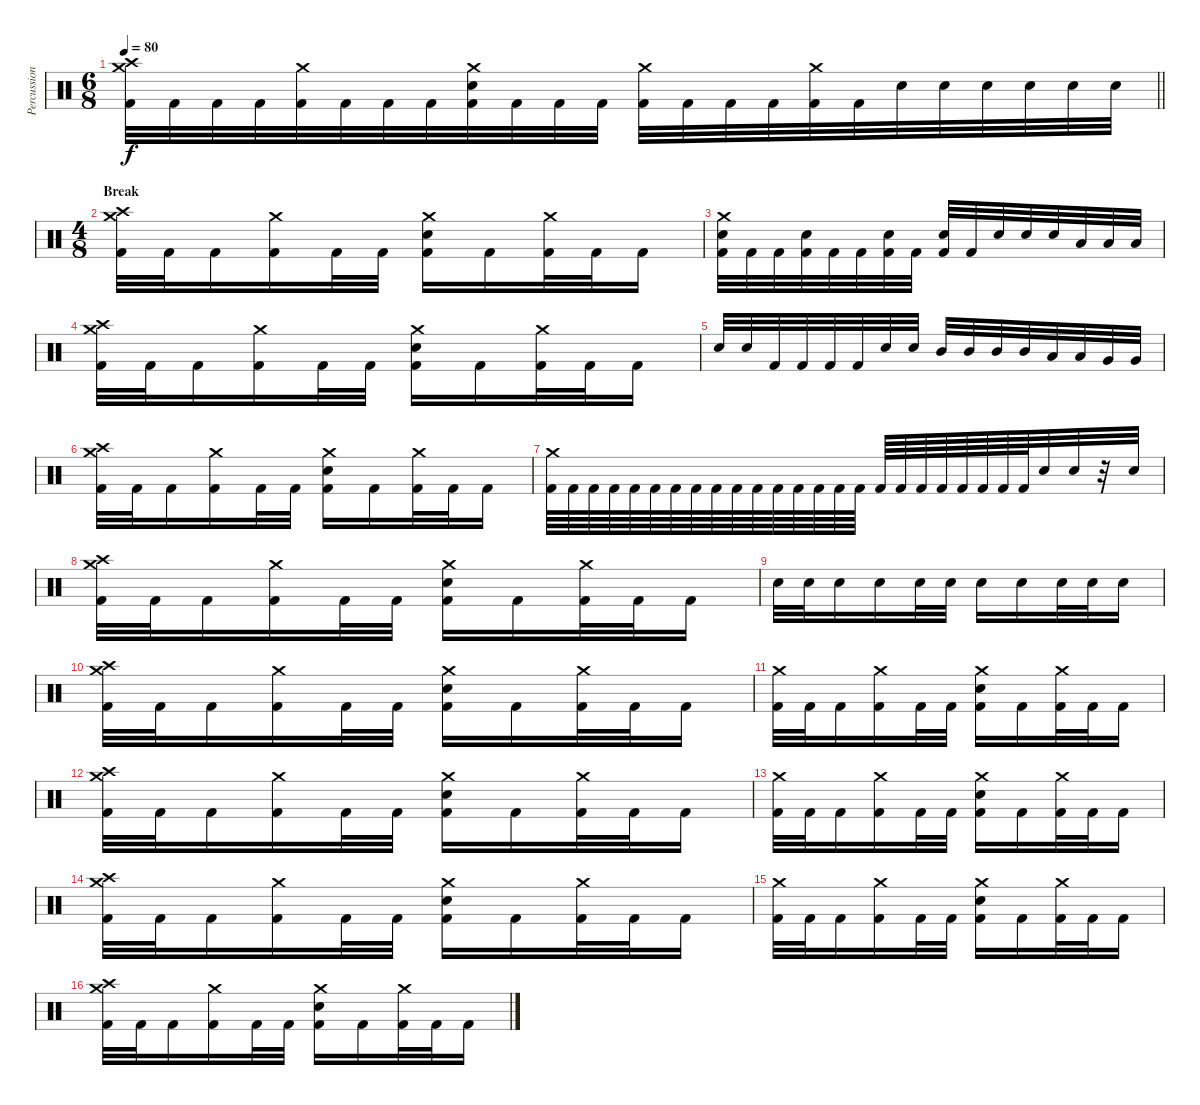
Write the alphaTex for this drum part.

\track ("Percussion" "Percussion") {instrument percussion}
\staff {score}
\articulation defaults
\ts (6 8)
\tempo 80
\clef neutral
\barLineRight lightlight
\ks c
("Crash high (hit)" "Crash medium (hit)" "Kick (hit) 2").32{dy f} "Kick (hit) 2".32 "Kick (hit) 2".32 "Kick (hit) 2".32 ("Crash medium (hit)" "Kick (hit) 2").32 "Kick (hit) 2".32 "Kick (hit) 2".32 "Kick (hit) 2".32 ("Crash medium (hit)" "Snare (hit) 2" "Kick (hit) 2").32 "Kick (hit) 2".32 "Kick (hit) 2".32 "Kick (hit) 2".32 ("Crash medium (hit)" "Kick (hit) 2").32 "Kick (hit) 2".32 "Kick (hit) 2".32 "Kick (hit) 2".32 ("Crash medium (hit)" "Kick (hit) 2").32 "Kick (hit) 2".32 "Snare (hit) 2".32 "Snare (hit) 2".32 "Snare (hit) 2".32 "Snare (hit) 2".32 "Snare (hit) 2".32 "Snare (hit) 2".32 |
\ts (4 8)
\section ("" "Break")
("Crash high (hit)" "Crash medium (hit)" "Kick (hit) 2").32 "Kick (hit) 2".32 "Kick (hit) 2".16 ("Crash medium (hit)" "Kick (hit) 2").16 "Kick (hit) 2".32 "Kick (hit) 2".32 ("Crash medium (hit)" "Snare (hit) 2" "Kick (hit) 2").16 "Kick (hit) 2".16 ("Crash medium (hit)" "Kick (hit) 2").32 "Kick (hit) 2".32 "Kick (hit) 2".16 |
("Crash medium (hit)" "Snare (hit) 2" "Kick (hit) 2").32 "Kick (hit) 2".32 "Kick (hit) 2".32 ("Snare (hit) 2" "Kick (hit) 2").32 "Kick (hit) 2".32 "Kick (hit) 2".32 ("Snare (hit) 2" "Kick (hit) 2").32 "Kick (hit) 2".32 ("Snare (hit) 2" "Kick (hit) 2").32 "Kick (hit) 2".32 "Snare (hit) 2".32 "Snare (hit) 2".32 "Snare (hit) 2".32 "Low Tom (hit)".32 "Low Tom (hit)".32 "Low Tom (hit)".32 |
("Crash high (hit)" "Crash medium (hit)" "Kick (hit) 2").32 "Kick (hit) 2".32 "Kick (hit) 2".16 ("Crash medium (hit)" "Kick (hit) 2").16 "Kick (hit) 2".32 "Kick (hit) 2".32 ("Crash medium (hit)" "Snare (hit) 2" "Kick (hit) 2").16 "Kick (hit) 2".16 ("Crash medium (hit)" "Kick (hit) 2").32 "Kick (hit) 2".32 "Kick (hit) 2".16 |
"Snare (hit) 2".32 "Snare (hit) 2".32 "Kick (hit) 2".32 "Kick (hit) 2".32 "Kick (hit) 2".32 "Kick (hit) 2".32 "Snare (hit) 2".32 "Snare (hit) 2".32 "Mid Tom (hit)".32 "Mid Tom (hit)".32 "Mid Tom (hit)".32 "Mid Tom (hit)".32 "Low Tom (hit)".32 "Low Tom (hit)".32 "Very Low Tom (hit)".32 "Very Low Tom (hit)".32 |
("Crash high (hit)" "Crash medium (hit)" "Kick (hit) 2").32 "Kick (hit) 2".32 "Kick (hit) 2".16 ("Crash medium (hit)" "Kick (hit) 2").16 "Kick (hit) 2".32 "Kick (hit) 2".32 ("Crash medium (hit)" "Snare (hit) 2" "Kick (hit) 2").16 "Kick (hit) 2".16 ("Crash medium (hit)" "Kick (hit) 2").32 "Kick (hit) 2".32 "Kick (hit) 2".16 |
("Crash medium (hit)" "Kick (hit) 2").64 "Kick (hit) 2".64 "Kick (hit) 2".64 "Kick (hit) 2".64 "Kick (hit) 2".64 "Kick (hit) 2".64 "Kick (hit) 2".64 "Kick (hit) 2".64 "Kick (hit) 2".64 "Kick (hit) 2".64 "Kick (hit) 2".64 "Kick (hit) 2".64 "Kick (hit) 2".64 "Kick (hit) 2".64 "Kick (hit) 2".64 "Kick (hit) 2".64 "Kick (hit) 2".64 "Kick (hit) 2".64 "Kick (hit) 2".64 "Kick (hit) 2".64 "Kick (hit) 2".64 "Kick (hit) 2".64 "Kick (hit) 2".64 "Kick (hit) 2".64 "Snare (hit) 2".32 "Snare (hit) 2".32 r.32 "Snare (hit) 2".32 |
("Crash high (hit)" "Crash medium (hit)" "Kick (hit) 2").32 "Kick (hit) 2".32 "Kick (hit) 2".16 ("Crash medium (hit)" "Kick (hit) 2").16 "Kick (hit) 2".32 "Kick (hit) 2".32 ("Crash medium (hit)" "Snare (hit) 2" "Kick (hit) 2").16 "Kick (hit) 2".16 ("Crash medium (hit)" "Kick (hit) 2").32 "Kick (hit) 2".32 "Kick (hit) 2".16 |
"Snare (hit) 2".32 "Snare (hit) 2".32 "Snare (hit) 2".16 "Snare (hit) 2".16 "Snare (hit) 2".32 "Snare (hit) 2".32 "Snare (hit) 2".16 "Snare (hit) 2".16 "Snare (hit) 2".32 "Snare (hit) 2".32 "Snare (hit) 2".16 |
("Crash high (hit)" "Crash medium (hit)" "Kick (hit) 2").32 "Kick (hit) 2".32 "Kick (hit) 2".16 ("Crash medium (hit)" "Kick (hit) 2").16 "Kick (hit) 2".32 "Kick (hit) 2".32 ("Crash medium (hit)" "Snare (hit) 2" "Kick (hit) 2").16 "Kick (hit) 2".16 ("Crash medium (hit)" "Kick (hit) 2").32 "Kick (hit) 2".32 "Kick (hit) 2".16 |
("Crash medium (hit)" "Kick (hit) 2").32 "Kick (hit) 2".32 "Kick (hit) 2".16 ("Crash medium (hit)" "Kick (hit) 2").16 "Kick (hit) 2".32 "Kick (hit) 2".32 ("Crash medium (hit)" "Snare (hit) 2" "Kick (hit) 2").16 "Kick (hit) 2".16 ("Crash medium (hit)" "Kick (hit) 2").32 "Kick (hit) 2".32 "Kick (hit) 2".16 |
("Crash high (hit)" "Crash medium (hit)" "Kick (hit) 2").32 "Kick (hit) 2".32 "Kick (hit) 2".16 ("Crash medium (hit)" "Kick (hit) 2").16 "Kick (hit) 2".32 "Kick (hit) 2".32 ("Crash medium (hit)" "Snare (hit) 2" "Kick (hit) 2").16 "Kick (hit) 2".16 ("Crash medium (hit)" "Kick (hit) 2").32 "Kick (hit) 2".32 "Kick (hit) 2".16 |
("Crash medium (hit)" "Kick (hit) 2").32 "Kick (hit) 2".32 "Kick (hit) 2".16 ("Crash medium (hit)" "Kick (hit) 2").16 "Kick (hit) 2".32 "Kick (hit) 2".32 ("Crash medium (hit)" "Snare (hit) 2" "Kick (hit) 2").16 "Kick (hit) 2".16 ("Crash medium (hit)" "Kick (hit) 2").32 "Kick (hit) 2".32 "Kick (hit) 2".16 |
("Crash high (hit)" "Crash medium (hit)" "Kick (hit) 2").32 "Kick (hit) 2".32 "Kick (hit) 2".16 ("Crash medium (hit)" "Kick (hit) 2").16 "Kick (hit) 2".32 "Kick (hit) 2".32 ("Crash medium (hit)" "Snare (hit) 2" "Kick (hit) 2").16 "Kick (hit) 2".16 ("Crash medium (hit)" "Kick (hit) 2").32 "Kick (hit) 2".32 "Kick (hit) 2".16 |
("Crash medium (hit)" "Kick (hit) 2").32 "Kick (hit) 2".32 "Kick (hit) 2".16 ("Crash medium (hit)" "Kick (hit) 2").16 "Kick (hit) 2".32 "Kick (hit) 2".32 ("Crash medium (hit)" "Snare (hit) 2" "Kick (hit) 2").16 "Kick (hit) 2".16 ("Crash medium (hit)" "Kick (hit) 2").32 "Kick (hit) 2".32 "Kick (hit) 2".16 |
("Crash high (hit)" "Crash medium (hit)" "Kick (hit) 2").32 "Kick (hit) 2".32 "Kick (hit) 2".16 ("Crash medium (hit)" "Kick (hit) 2").16 "Kick (hit) 2".32 "Kick (hit) 2".32 ("Crash medium (hit)" "Snare (hit) 2" "Kick (hit) 2").16 "Kick (hit) 2".16 ("Crash medium (hit)" "Kick (hit) 2").32 "Kick (hit) 2".32 "Kick (hit) 2".16
